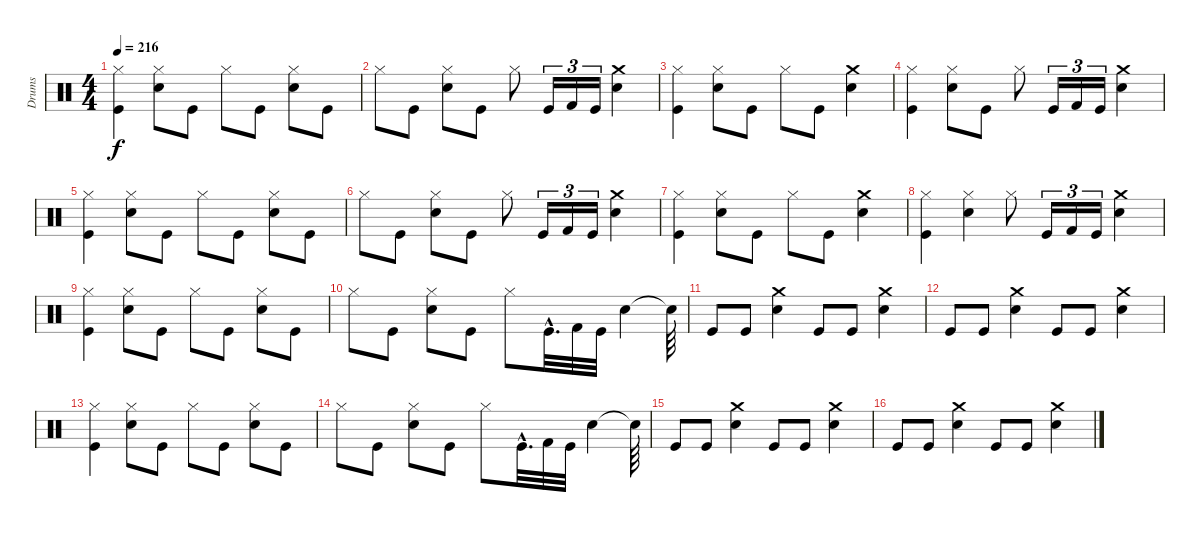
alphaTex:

\track ("Drums" "Drums") {instrument percussion}
\staff {score}
\articulation defaults
\ts (4 4)
\tempo 216
\clef neutral
\ks c
("Hi-Hat (closed)" "Kick (hit)").4{dy f} ("Snare (hit) 2" "Hi-Hat (closed)").8 "Kick (hit)".8 "Hi-Hat (closed)".8 "Kick (hit)".8 ("Snare (hit) 2" "Hi-Hat (closed)").8 "Kick (hit)".8 |
"Hi-Hat (closed)".8 "Kick (hit)".8 ("Snare (hit) 2" "Hi-Hat (closed)").8 "Kick (hit)".8 "Hi-Hat (closed)".8 "Kick (hit)".16{tu (3 2)} "Kick (hit) 2".16{tu (3 2)} "Kick (hit)".16{tu (3 2)} ("Crash medium (hit)" "Snare (hit) 2").4 |
("Hi-Hat (closed)" "Kick (hit)").4 ("Snare (hit) 2" "Hi-Hat (closed)").8 "Kick (hit)".8 "Hi-Hat (closed)".8 "Kick (hit)".8 ("Crash medium (hit)" "Snare (hit) 2").4 |
("Kick (hit)" "Hi-Hat (closed)").4 ("Snare (hit) 2" "Hi-Hat (closed)").8 "Kick (hit)".8 "Hi-Hat (closed)".8 "Kick (hit)".16{tu (3 2)} "Kick (hit) 2".16{tu (3 2)} "Kick (hit)".16{tu (3 2)} ("Crash medium (hit)" "Snare (hit) 2").4 |
("Hi-Hat (closed)" "Kick (hit)").4 ("Snare (hit) 2" "Hi-Hat (closed)").8 "Kick (hit)".8 "Hi-Hat (closed)".8 "Kick (hit)".8 ("Snare (hit) 2" "Hi-Hat (closed)").8 "Kick (hit)".8 |
"Hi-Hat (closed)".8 "Kick (hit)".8 ("Snare (hit) 2" "Hi-Hat (closed)").8 "Kick (hit)".8 "Hi-Hat (closed)".8 "Kick (hit)".16{tu (3 2)} "Kick (hit) 2".16{tu (3 2)} "Kick (hit)".16{tu (3 2)} ("Crash medium (hit)" "Snare (hit) 2").4 |
("Hi-Hat (closed)" "Kick (hit)").4 ("Snare (hit) 2" "Hi-Hat (closed)").8 "Kick (hit)".8 "Hi-Hat (closed)".8 "Kick (hit)".8 ("Crash medium (hit)" "Snare (hit) 2").4 |
("Hi-Hat (closed)" "Kick (hit)").4 ("Snare (hit) 2" "Hi-Hat (closed)").4 "Hi-Hat (closed)".8 "Kick (hit)".16{tu (3 2)} "Kick (hit) 2".16{tu (3 2)} "Kick (hit)".16{tu (3 2)} ("Crash medium (hit)" "Snare (hit) 2").4 |
("Hi-Hat (closed)" "Kick (hit)").4 ("Hi-Hat (closed)" "Snare (hit) 2").8 "Kick (hit)".8 "Hi-Hat (closed)".8 "Kick (hit)".8 ("Snare (hit) 2" "Hi-Hat (closed)").8 "Kick (hit)".8 |
"Hi-Hat (closed)".8 "Kick (hit)".8 ("Snare (hit) 2" "Hi-Hat (closed)").8 "Kick (hit)".8 "Hi-Hat (closed)".8 "Kick (hit)"{hac}.32{d} "Kick (hit) 2".32 "Kick (hit)".32 "Snare (hit) 2".4 "Snare (hit)"{t}.64 |
"Kick (hit)".8 "Kick (hit)".8 ("Crash medium (hit)" "Snare (hit) 2").4 "Kick (hit)".8 "Kick (hit)".8 ("Snare (hit) 2" "Crash medium (hit)").4 |
"Kick (hit)".8 "Kick (hit)".8 ("Snare (hit) 2" "Crash medium (hit)").4 "Kick (hit)".8 "Kick (hit)".8 ("Snare (hit) 2" "Crash medium (hit)").4 |
("Hi-Hat (closed)" "Kick (hit)").4 ("Snare (hit) 2" "Hi-Hat (closed)").8 "Kick (hit)".8 "Hi-Hat (closed)".8 "Kick (hit)".8 ("Snare (hit) 2" "Hi-Hat (closed)").8 "Kick (hit)".8 |
"Hi-Hat (closed)".8 "Kick (hit)".8 ("Snare (hit) 2" "Hi-Hat (closed)").8 "Kick (hit)".8 "Hi-Hat (closed)".8 "Kick (hit)"{hac}.32{d} "Kick (hit) 2".32 "Kick (hit)".32 "Snare (hit) 2".4 "Snare (hit)"{t}.64 |
"Kick (hit)".8 "Kick (hit)".8 ("Crash medium (hit)" "Snare (hit) 2").4 "Kick (hit)".8 "Kick (hit)".8 ("Snare (hit) 2" "Crash medium (hit)").4 |
"Kick (hit)".8 "Kick (hit)".8 ("Snare (hit) 2" "Crash medium (hit)").4 "Kick (hit)".8 "Kick (hit)".8 ("Snare (hit) 2" "Crash medium (hit)").4
